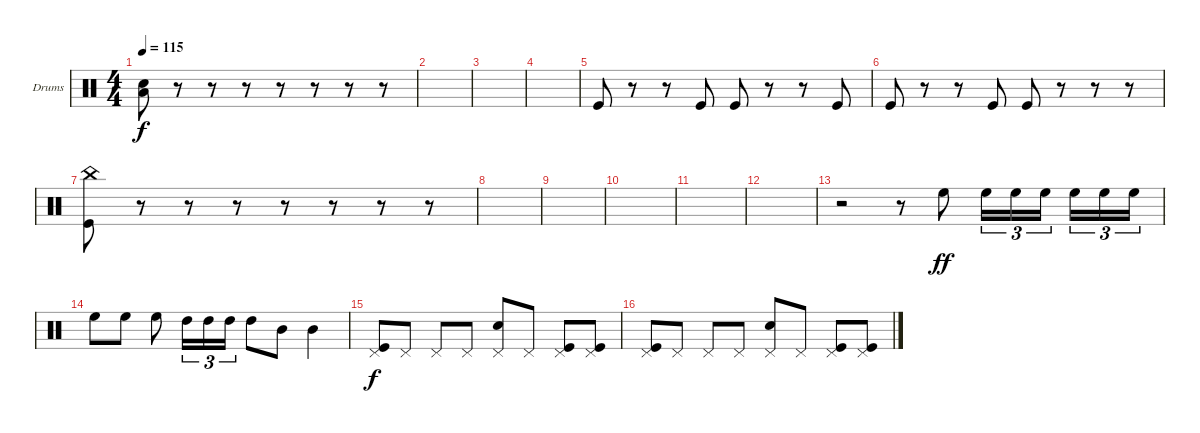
\defaultSystemsLayout 4
\bracketExtendMode groupsimilarinstruments
\firstSystemTrackNameOrientation horizontal
\otherSystemsTrackNameOrientation horizontal
\track ("Drumkit" "Drums") {instrument percussion}
\staff {score}
\articulation defaults
\ts (4 4)
\tempo 115
\clef neutral
\ks c
("Snare (hit) 2" "Low Tom (hit)").8{dy f} r.8 r.8 r.8 r.8 r.8 r.8 r.8 |
|
|
|
"Kick (hit)".8 r.8 r.8 "Kick (hit)".8 "Kick (hit)".8 r.8 r.8 "Kick (hit)".8 |
"Kick (hit)".8 r.8 r.8 "Kick (hit)".8 "Kick (hit)".8 r.8 r.8 r.8 |
("Kick (hit)" "China (hit)").8 r.8 r.8 r.8 r.8 r.8 r.8 r.8 |
|
|
|
|
|
r.2 r.8 "High Floor Tom (hit)".8{dy ff} "High Floor Tom (hit)".16{tu (3 2)} "High Floor Tom (hit)".16{tu (3 2)} "High Floor Tom (hit)".16{tu (3 2)} "High Floor Tom (hit)".16{tu (3 2)} "High Floor Tom (hit)".16{tu (3 2)} "High Floor Tom (hit)".16{tu (3 2)} |
"High Floor Tom (hit)".8 "High Floor Tom (hit)".8 "High Floor Tom (hit)".8 "High Tom (hit)".16{tu (3 2)} "High Tom (hit)".16{tu (3 2)} "High Tom (hit)".16{tu (3 2)} "High Tom (hit)".8 "Mid Tom (hit)".8 "Mid Tom (hit)".4 |
("Pedal Hi-Hat (hit)" "Kick (hit)").8{dy f} "Pedal Hi-Hat (hit)".8 "Pedal Hi-Hat (hit)".8 "Pedal Hi-Hat (hit)".8 ("Pedal Hi-Hat (hit)" "Snare (hit) 2").8 "Pedal Hi-Hat (hit)".8 ("Pedal Hi-Hat (hit)" "Kick (hit)").8 ("Pedal Hi-Hat (hit)" "Kick (hit)").8 |
("Kick (hit)" "Pedal Hi-Hat (hit)").8 "Pedal Hi-Hat (hit)".8 "Pedal Hi-Hat (hit)".8 "Pedal Hi-Hat (hit)".8 ("Pedal Hi-Hat (hit)" "Snare (hit) 2").8 "Pedal Hi-Hat (hit)".8 ("Pedal Hi-Hat (hit)" "Kick (hit)").8 ("Pedal Hi-Hat (hit)" "Kick (hit)").8
